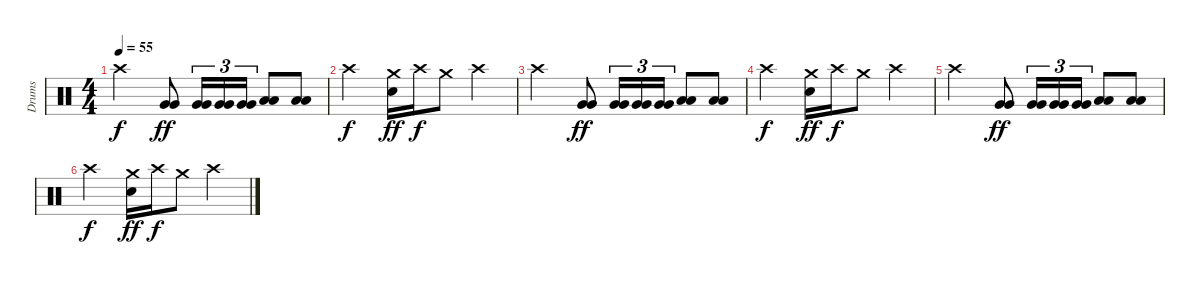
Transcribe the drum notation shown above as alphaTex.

\track ("Drums" "Drums") {instrument percussion}
\staff {score}
\articulation defaults
\ts (4 4)
\tempo 55
\clef neutral
\ks c "Crash high (hit)".2{dy f}
("Very Low Tom (hit)" "Very Low Tom (hit)").8{dy ff} ("Very Low Tom (hit)" "Very Low Tom (hit)").16{tu (3 2)} ("Very Low Tom (hit)" "Very Low Tom (hit)").16{tu (3 2)} ("Very Low Tom (hit)" "Very Low Tom (hit)").16{tu (3 2)} ("Low Floor Tom (hit)" "Low Floor Tom (hit)").8 ("Low Floor Tom (hit)" "Low Floor Tom (hit)").8 |
"Crash high (hit)".2{dy f} ("Crash medium (hit)" "Snare (hit) 2").16{dy ff} "Crash high (hit)".16{dy f} "Crash medium (hit)".8 "Crash high (hit)".4 |
"Crash high (hit)".2{volume 0} ("Very Low Tom (hit)" "Very Low Tom (hit)").8{dy ff} ("Very Low Tom (hit)" "Very Low Tom (hit)").16{tu (3 2)} ("Very Low Tom (hit)" "Very Low Tom (hit)").16{tu (3 2)} ("Very Low Tom (hit)" "Very Low Tom (hit)").16{tu (3 2)} ("Low Floor Tom (hit)" "Low Floor Tom (hit)").8 ("Low Floor Tom (hit)" "Low Floor Tom (hit)").8 |
"Crash high (hit)".2{dy f} ("Crash medium (hit)" "Snare (hit) 2").16{dy ff} "Crash high (hit)".16{dy f} "Crash medium (hit)".8 "Crash high (hit)".4 |
"Crash high (hit)".2 ("Very Low Tom (hit)" "Very Low Tom (hit)").8{dy ff} ("Very Low Tom (hit)" "Very Low Tom (hit)").16{tu (3 2)} ("Very Low Tom (hit)" "Very Low Tom (hit)").16{tu (3 2)} ("Very Low Tom (hit)" "Very Low Tom (hit)").16{tu (3 2)} ("Low Floor Tom (hit)" "Low Floor Tom (hit)").8 ("Low Floor Tom (hit)" "Low Floor Tom (hit)").8 |
"Crash high (hit)".2{dy f} ("Crash medium (hit)" "Snare (hit) 2").16{dy ff} "Crash high (hit)".16{dy f} "Crash medium (hit)".8 "Crash high (hit)".4
